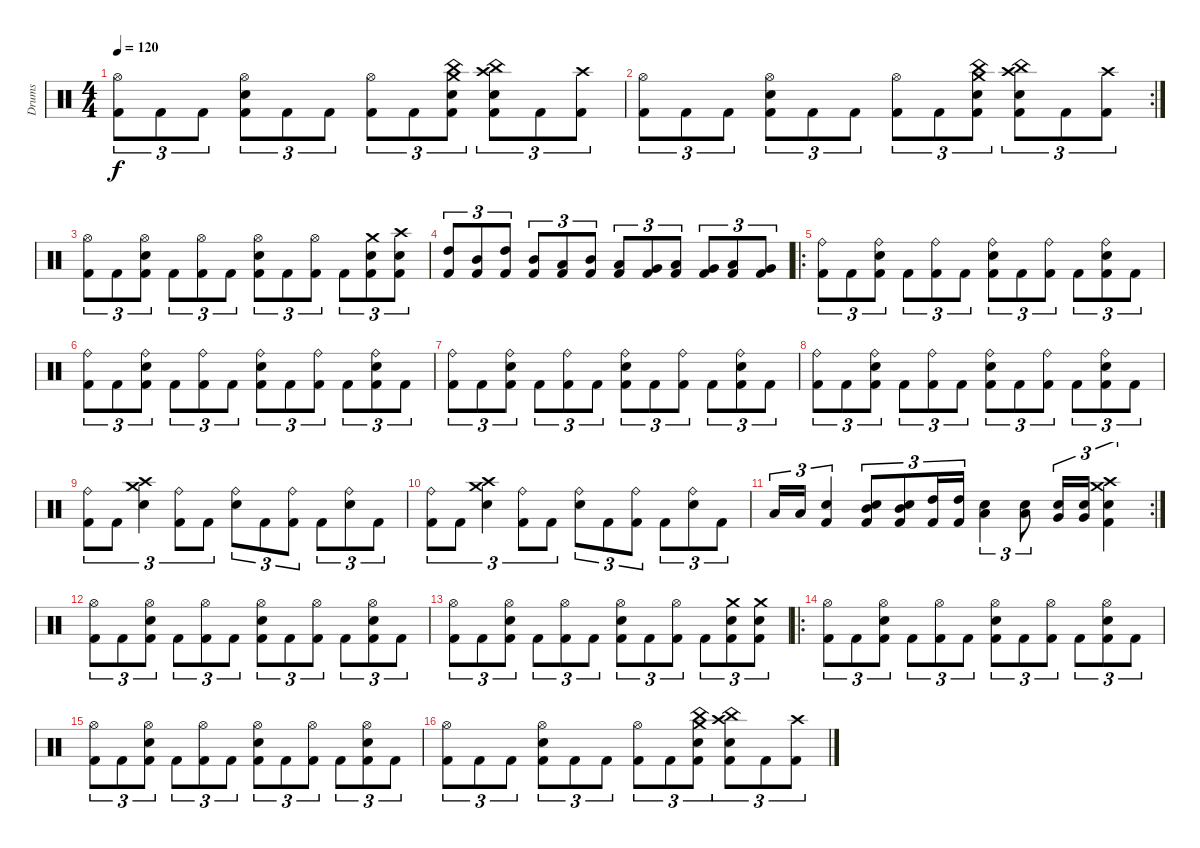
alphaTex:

\track ("Drums" "Drums") {instrument percussion}
\staff {score}
\articulation defaults
\ts (4 4)
\tempo 120
\clef neutral
\ks c
("Hi-Hat (open)" "Kick (hit) 2").8{tu (3 2) dy f} "Kick (hit) 2".8{tu (3 2)} "Kick (hit) 2".8{tu (3 2)} ("Hi-Hat (open)" "Snare (hit) 2" "Kick (hit) 2").8{tu (3 2)} "Kick (hit) 2".8{tu (3 2)} "Kick (hit) 2".8{tu (3 2)} ("Hi-Hat (open)" "Kick (hit) 2").8{tu (3 2)} "Kick (hit) 2".8{tu (3 2)} ("China (hit)" "Crash medium (hit)" "Snare (hit) 2" "Kick (hit) 2").8{tu (3 2)} ("China (hit)" "Crash high (hit)" "Snare (hit) 2" "Kick (hit) 2").8{tu (3 2)} "Kick (hit) 2".8{tu (3 2)} ("Crash high (hit)" "Kick (hit) 2").8{tu (3 2)} |
\rc 2
("Hi-Hat (open)" "Kick (hit) 2").8{tu (3 2)} "Kick (hit) 2".8{tu (3 2)} "Kick (hit) 2".8{tu (3 2)} ("Hi-Hat (open)" "Snare (hit) 2" "Kick (hit) 2").8{tu (3 2)} "Kick (hit) 2".8{tu (3 2)} "Kick (hit) 2".8{tu (3 2)} ("Hi-Hat (open)" "Kick (hit) 2").8{tu (3 2)} "Kick (hit) 2".8{tu (3 2)} ("China (hit)" "Crash medium (hit)" "Snare (hit) 2" "Kick (hit) 2").8{tu (3 2)} ("China (hit)" "Crash high (hit)" "Snare (hit) 2" "Kick (hit) 2").8{tu (3 2)} "Kick (hit) 2".8{tu (3 2)} ("Crash high (hit)" "Kick (hit) 2").8{tu (3 2)} |
("Hi-Hat (open)" "Kick (hit) 2").8{tu (3 2)} "Kick (hit) 2".8{tu (3 2)} ("Hi-Hat (open)" "Snare (hit) 2" "Kick (hit) 2").8{tu (3 2)} "Kick (hit) 2".8{tu (3 2)} ("Hi-Hat (open)" "Kick (hit) 2").8{tu (3 2)} "Kick (hit) 2".8{tu (3 2)} ("Hi-Hat (open)" "Snare (hit) 2" "Kick (hit) 2").8{tu (3 2)} "Kick (hit) 2".8{tu (3 2)} ("Hi-Hat (open)" "Kick (hit) 2").8{tu (3 2)} "Kick (hit) 2".8{tu (3 2)} ("Crash medium (hit)" "Snare (hit) 2" "Kick (hit) 2").8{tu (3 2)} ("Crash high (hit)" "Snare (hit) 2" "Kick (hit) 2").8{tu (3 2)} |
("High Tom (hit)" "Kick (hit) 2").8{tu (3 2)} ("Mid Tom (hit)" "Kick (hit) 2").8{tu (3 2)} ("High Tom (hit)" "Kick (hit) 2").8{tu (3 2)} ("Mid Tom (hit)" "Kick (hit) 2").8{tu (3 2)} ("Low Tom (hit)" "Kick (hit) 2").8{tu (3 2)} ("Mid Tom (hit)" "Kick (hit) 2").8{tu (3 2)} ("Low Tom (hit)" "Kick (hit) 2").8{tu (3 2)} ("Very Low Tom (hit)" "Kick (hit) 2").8{tu (3 2)} ("Low Tom (hit)" "Kick (hit) 2").8{tu (3 2)} ("Very Low Tom (hit)" "Kick (hit) 2").8{tu (3 2)} ("Low Floor Tom (hit)" "Kick (hit) 2").8{tu (3 2)} ("Very Low Tom (hit)" "Kick (hit) 2").8{tu (3 2)} |
\ro
("Ride (bell)" "Kick (hit) 2").8{tu (3 2)} "Kick (hit) 2".8{tu (3 2)} ("Ride (bell)" "Snare (hit) 2" "Kick (hit) 2").8{tu (3 2)} "Kick (hit) 2".8{tu (3 2)} ("Ride (bell)" "Kick (hit) 2").8{tu (3 2)} "Kick (hit) 2".8{tu (3 2)} ("Ride (bell)" "Snare (hit) 2" "Kick (hit) 2").8{tu (3 2)} "Kick (hit) 2".8{tu (3 2)} ("Ride (bell)" "Kick (hit) 2").8{tu (3 2)} "Kick (hit) 2".8{tu (3 2)} ("Ride (bell)" "Snare (hit) 2" "Kick (hit) 2").8{tu (3 2)} "Kick (hit) 2".8{tu (3 2)} |
("Ride (bell)" "Kick (hit) 2").8{tu (3 2)} "Kick (hit) 2".8{tu (3 2)} ("Ride (bell)" "Snare (hit) 2" "Kick (hit) 2").8{tu (3 2)} "Kick (hit) 2".8{tu (3 2)} ("Ride (bell)" "Kick (hit) 2").8{tu (3 2)} "Kick (hit) 2".8{tu (3 2)} ("Ride (bell)" "Snare (hit) 2" "Kick (hit) 2").8{tu (3 2)} "Kick (hit) 2".8{tu (3 2)} ("Ride (bell)" "Kick (hit) 2").8{tu (3 2)} "Kick (hit) 2".8{tu (3 2)} ("Ride (bell)" "Snare (hit) 2" "Kick (hit) 2").8{tu (3 2)} "Kick (hit) 2".8{tu (3 2)} |
("Ride (bell)" "Kick (hit) 2").8{tu (3 2)} "Kick (hit) 2".8{tu (3 2)} ("Ride (bell)" "Snare (hit) 2" "Kick (hit) 2").8{tu (3 2)} "Kick (hit) 2".8{tu (3 2)} ("Ride (bell)" "Kick (hit) 2").8{tu (3 2)} "Kick (hit) 2".8{tu (3 2)} ("Ride (bell)" "Snare (hit) 2" "Kick (hit) 2").8{tu (3 2)} "Kick (hit) 2".8{tu (3 2)} ("Ride (bell)" "Kick (hit) 2").8{tu (3 2)} "Kick (hit) 2".8{tu (3 2)} ("Ride (bell)" "Snare (hit) 2" "Kick (hit) 2").8{tu (3 2)} "Kick (hit) 2".8{tu (3 2)} |
("Ride (bell)" "Kick (hit) 2").8{tu (3 2)} "Kick (hit) 2".8{tu (3 2)} ("Ride (bell)" "Snare (hit) 2" "Kick (hit) 2").8{tu (3 2)} "Kick (hit) 2".8{tu (3 2)} ("Ride (bell)" "Kick (hit) 2").8{tu (3 2)} "Kick (hit) 2".8{tu (3 2)} ("Ride (bell)" "Snare (hit) 2" "Kick (hit) 2").8{tu (3 2)} "Kick (hit) 2".8{tu (3 2)} ("Ride (bell)" "Kick (hit) 2").8{tu (3 2)} "Kick (hit) 2".8{tu (3 2)} ("Ride (bell)" "Snare (hit) 2" "Kick (hit) 2").8{tu (3 2)} "Kick (hit) 2".8{tu (3 2)} |
("Ride (bell)" "Kick (hit) 2").8{tu (3 2)} "Kick (hit) 2".8{tu (3 2)} ("Crash high (hit)" "Crash medium (hit)" "Snare (hit) 2").4{tu (3 2)} ("Ride (bell)" "Kick (hit) 2").8{tu (3 2)} "Kick (hit) 2".8{tu (3 2)} ("Ride (bell)" "Snare (hit) 2").8{tu (3 2)} "Kick (hit) 2".8{tu (3 2)} ("Ride (bell)" "Kick (hit) 2").8{tu (3 2)} "Kick (hit) 2".8{tu (3 2)} ("Ride (bell)" "Snare (hit) 2").8{tu (3 2)} "Kick (hit) 2".8{tu (3 2)} |
("Ride (bell)" "Kick (hit) 2").8{tu (3 2)} "Kick (hit) 2".8{tu (3 2)} ("Crash high (hit)" "Crash medium (hit)" "Snare (hit) 2").4{tu (3 2)} ("Ride (bell)" "Kick (hit) 2").8{tu (3 2)} "Kick (hit) 2".8{tu (3 2)} ("Ride (bell)" "Snare (hit) 2").8{tu (3 2)} "Kick (hit) 2".8{tu (3 2)} ("Ride (bell)" "Kick (hit) 2").8{tu (3 2)} "Kick (hit) 2".8{tu (3 2)} ("Ride (bell)" "Snare (hit) 2").8{tu (3 2)} "Kick (hit) 2".8{tu (3 2)} |
\rc 2 "Low Tom (hit)".16{tu (3 2)} "Low Tom (hit)".16{tu (3 2)}
("Snare (hit) 2" "Kick (hit) 2").4{tu (3 2)} ("Mid Tom (hit)" "Snare (hit) 2" "Kick (hit) 2").8{tu (3 2)} ("Mid Tom (hit)" "Snare (hit) 2" "Kick (hit) 2").8{tu (3 2)} ("High Tom (hit)" "Kick (hit) 2").16{tu (3 2)} ("High Tom (hit)" "Kick (hit) 2").16{tu (3 2)} ("Low Tom (hit)" "Snare (hit) 2").4{tu (3 2)} ("Low Tom (hit)" "Snare (hit) 2").8{tu (3 2)} ("Very Low Tom (hit)" "Snare (hit) 2").16{tu (3 2)} ("Very Low Tom (hit)" "Snare (hit) 2").16{tu (3 2)} ("Crash high (hit)" "Crash medium (hit)" "Snare (hit) 2" "Kick (hit) 2").4{tu (3 2)} |
("Hi-Hat (open)" "Kick (hit) 2").8{tu (3 2)} "Kick (hit) 2".8{tu (3 2)} ("Hi-Hat (open)" "Snare (hit) 2" "Kick (hit) 2").8{tu (3 2)} "Kick (hit) 2".8{tu (3 2)} ("Hi-Hat (open)" "Kick (hit) 2").8{tu (3 2)} "Kick (hit) 2".8{tu (3 2)} ("Hi-Hat (open)" "Snare (hit) 2" "Kick (hit) 2").8{tu (3 2)} "Kick (hit) 2".8{tu (3 2)} ("Hi-Hat (open)" "Kick (hit) 2").8{tu (3 2)} "Kick (hit) 2".8{tu (3 2)} ("Hi-Hat (open)" "Snare (hit) 2" "Kick (hit) 2").8{tu (3 2)} "Kick (hit) 2".8{tu (3 2)} |
("Hi-Hat (open)" "Kick (hit) 2").8{tu (3 2)} "Kick (hit) 2".8{tu (3 2)} ("Hi-Hat (open)" "Snare (hit) 2" "Kick (hit) 2").8{tu (3 2)} "Kick (hit) 2".8{tu (3 2)} ("Hi-Hat (open)" "Kick (hit) 2").8{tu (3 2)} "Kick (hit) 2".8{tu (3 2)} ("Hi-Hat (open)" "Snare (hit) 2" "Kick (hit) 2").8{tu (3 2)} "Kick (hit) 2".8{tu (3 2)} ("Hi-Hat (open)" "Kick (hit) 2").8{tu (3 2)} "Kick (hit) 2".8{tu (3 2)} ("Crash medium (hit)" "Snare (hit) 2" "Kick (hit) 2").8{tu (3 2)} ("Crash medium (hit)" "Snare (hit) 2" "Kick (hit) 2").8{tu (3 2)} |
\ro
("Hi-Hat (open)" "Kick (hit) 2").8{tu (3 2)} "Kick (hit) 2".8{tu (3 2)} ("Hi-Hat (open)" "Snare (hit) 2" "Kick (hit) 2").8{tu (3 2)} "Kick (hit) 2".8{tu (3 2)} ("Hi-Hat (open)" "Kick (hit) 2").8{tu (3 2)} "Kick (hit) 2".8{tu (3 2)} ("Hi-Hat (open)" "Snare (hit) 2" "Kick (hit) 2").8{tu (3 2)} "Kick (hit) 2".8{tu (3 2)} ("Hi-Hat (open)" "Kick (hit) 2").8{tu (3 2)} "Kick (hit) 2".8{tu (3 2)} ("Hi-Hat (open)" "Snare (hit) 2" "Kick (hit) 2").8{tu (3 2)} "Kick (hit) 2".8{tu (3 2)} |
("Hi-Hat (open)" "Kick (hit) 2").8{tu (3 2)} "Kick (hit) 2".8{tu (3 2)} ("Hi-Hat (open)" "Snare (hit) 2" "Kick (hit) 2").8{tu (3 2)} "Kick (hit) 2".8{tu (3 2)} ("Hi-Hat (open)" "Kick (hit) 2").8{tu (3 2)} "Kick (hit) 2".8{tu (3 2)} ("Hi-Hat (open)" "Snare (hit) 2" "Kick (hit) 2").8{tu (3 2)} "Kick (hit) 2".8{tu (3 2)} ("Hi-Hat (open)" "Kick (hit) 2").8{tu (3 2)} "Kick (hit) 2".8{tu (3 2)} ("Hi-Hat (open)" "Snare (hit) 2" "Kick (hit) 2").8{tu (3 2)} "Kick (hit) 2".8{tu (3 2)} |
("Hi-Hat (open)" "Kick (hit) 2").8{tu (3 2)} "Kick (hit) 2".8{tu (3 2)} "Kick (hit) 2".8{tu (3 2)} ("Hi-Hat (open)" "Snare (hit) 2" "Kick (hit) 2").8{tu (3 2)} "Kick (hit) 2".8{tu (3 2)} "Kick (hit) 2".8{tu (3 2)} ("Hi-Hat (open)" "Kick (hit) 2").8{tu (3 2)} "Kick (hit) 2".8{tu (3 2)} ("China (hit)" "Crash medium (hit)" "Snare (hit) 2" "Kick (hit) 2").8{tu (3 2)} ("China (hit)" "Crash high (hit)" "Snare (hit) 2" "Kick (hit) 2").8{tu (3 2)} "Kick (hit) 2".8{tu (3 2)} ("Crash high (hit)" "Kick (hit) 2").8{tu (3 2)}
